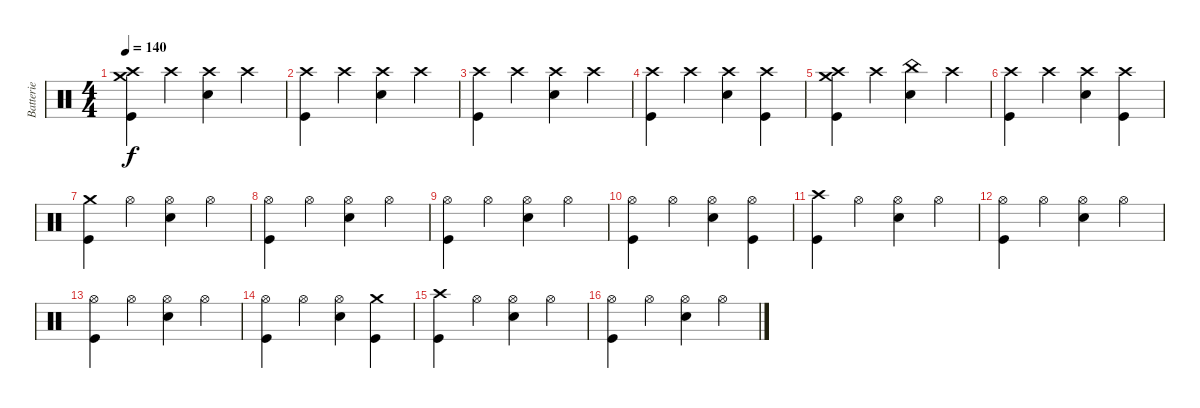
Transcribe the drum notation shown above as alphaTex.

\track ("Batterie" "Batterie") {instrument percussion}
\staff {score}
\articulation defaults
\ts (4 4)
\tempo 140
\clef neutral
\ks c
("Crash medium (hit)" "Crash high (hit)" "Kick (hit)").4{dy f} "Crash high (hit)".4 ("Crash high (hit)" "Electric Snare (hit)").4 "Crash high (hit)".4 |
("Crash high (hit)" "Kick (hit)").4 "Crash high (hit)".4 ("Crash high (hit)" "Electric Snare (hit)").4 "Crash high (hit)".4 |
("Crash high (hit)" "Kick (hit)").4 "Crash high (hit)".4 ("Crash high (hit)" "Electric Snare (hit)").4 "Crash high (hit)".4 |
("Crash high (hit)" "Kick (hit)").4 "Crash high (hit)".4 ("Crash high (hit)" "Electric Snare (hit)").4 ("Crash high (hit)" "Kick (hit)").4 |
("Crash medium (hit)" "Crash high (hit)" "Kick (hit)").4 "Crash high (hit)".4 ("China (hit)" "Electric Snare (hit)").4 "Crash high (hit)".4 |
("Crash high (hit)" "Kick (hit)").4 "Crash high (hit)".4 ("Crash high (hit)" "Electric Snare (hit)").4 ("Crash high (hit)" "Kick (hit)").4 |
("Crash medium (hit)" "Kick (hit)").4 "Hi-Hat (open)".4 ("Hi-Hat (open)" "Electric Snare (hit)").4 "Hi-Hat (open)".4 |
("Hi-Hat (open)" "Kick (hit)").4 "Hi-Hat (open)".4 ("Hi-Hat (open)" "Electric Snare (hit)").4 "Hi-Hat (open)".4 |
("Hi-Hat (open)" "Kick (hit)").4 "Hi-Hat (open)".4 ("Hi-Hat (open)" "Electric Snare (hit)").4 "Hi-Hat (open)".4 |
("Hi-Hat (open)" "Kick (hit)").4 "Hi-Hat (open)".4 ("Hi-Hat (open)" "Electric Snare (hit)").4 ("Hi-Hat (open)" "Kick (hit)").4 |
("Crash high (hit)" "Kick (hit)").4 "Hi-Hat (open)".4 ("Hi-Hat (open)" "Electric Snare (hit)").4 "Hi-Hat (open)".4 |
("Hi-Hat (open)" "Kick (hit)").4 "Hi-Hat (open)".4 ("Hi-Hat (open)" "Electric Snare (hit)").4 "Hi-Hat (open)".4 |
("Hi-Hat (open)" "Kick (hit)").4 "Hi-Hat (open)".4 ("Hi-Hat (open)" "Electric Snare (hit)").4 "Hi-Hat (open)".4 |
("Hi-Hat (open)" "Kick (hit)").4 "Hi-Hat (open)".4 ("Hi-Hat (open)" "Electric Snare (hit)").4 ("Crash medium (hit)" "Kick (hit)").4 |
("Crash high (hit)" "Kick (hit)").4 "Hi-Hat (open)".4 ("Hi-Hat (open)" "Electric Snare (hit)").4 "Hi-Hat (open)".4 |
("Hi-Hat (open)" "Kick (hit)").4 "Hi-Hat (open)".4 ("Hi-Hat (open)" "Electric Snare (hit)").4 "Hi-Hat (open)".4
